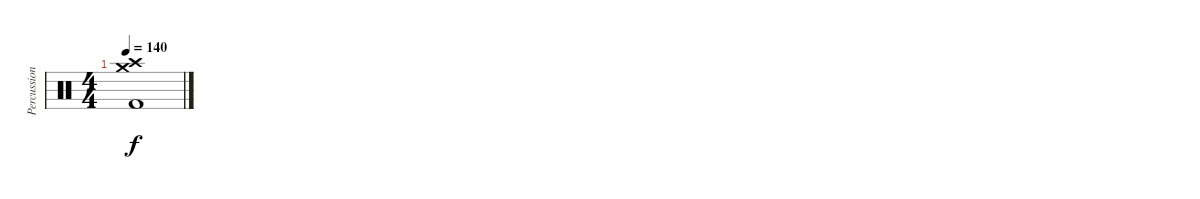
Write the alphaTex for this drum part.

\track ("Percussion" "Percussion") {instrument percussion}
\staff {score}
\articulation defaults
\ts (4 4)
\tempo 140
\clef neutral
\ks c
("Kick (hit) 2" "Crash high (hit)" "Crash medium (hit)").1{dy f}
